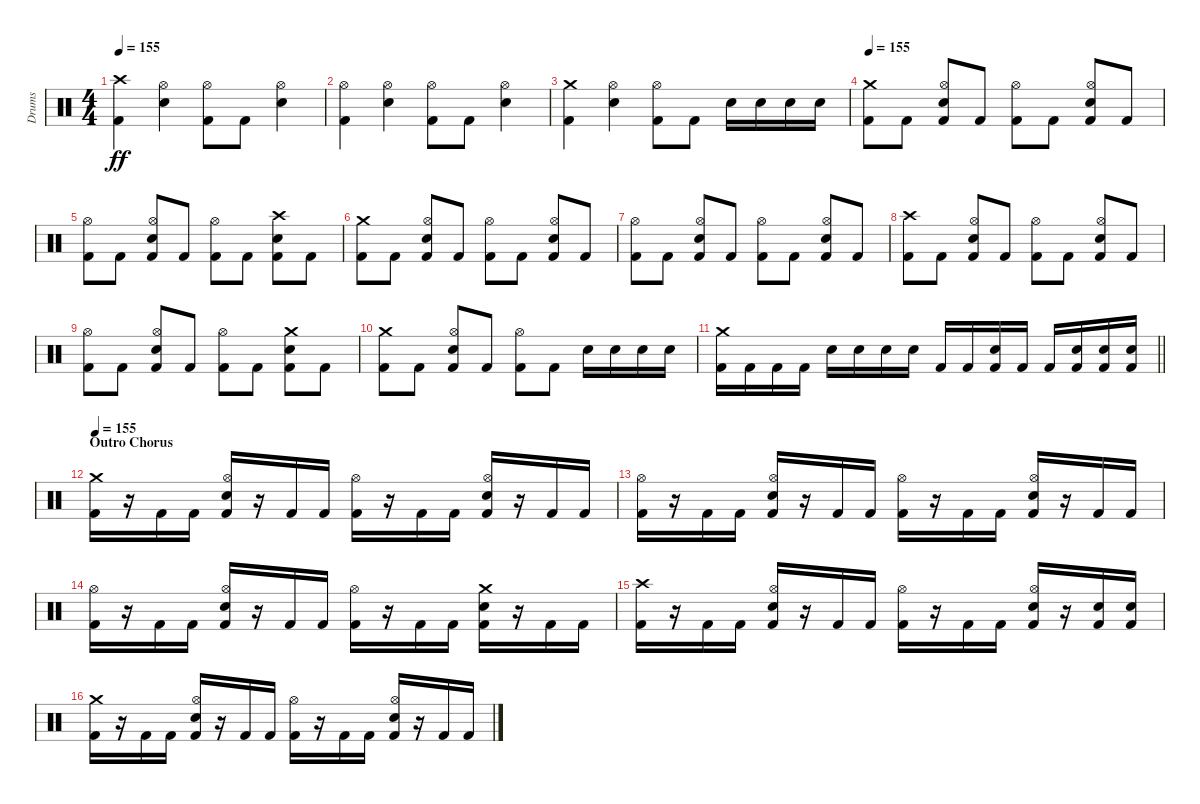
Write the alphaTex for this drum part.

\track ("Drums" "Drums") {solo instrument percussion}
\staff {score}
\articulation defaults
\ts (4 4)
\tempo 155
\clef neutral
\ks c
("Crash high (hit)" "Kick (hit) 2").4{dy ff} ("Hi-Hat (open)" "Electric Snare (hit)").4 ("Hi-Hat (open)" "Kick (hit) 2").8 "Kick (hit) 2".8 ("Hi-Hat (open)" "Electric Snare (hit)").4 |
("Hi-Hat (open)" "Kick (hit) 2").4 ("Hi-Hat (open)" "Electric Snare (hit)").4 ("Hi-Hat (open)" "Kick (hit) 2").8 "Kick (hit) 2".8 ("Hi-Hat (open)" "Electric Snare (hit)").4 |
("Crash medium (hit)" "Kick (hit) 2").4 ("Hi-Hat (open)" "Electric Snare (hit)").4 ("Hi-Hat (open)" "Kick (hit) 2").8 "Kick (hit) 2".8 "Electric Snare (hit)".16 "Electric Snare (hit)".16 "Electric Snare (hit)".16 "Electric Snare (hit)".16 |
\tempo 155
("Crash medium (hit)" "Kick (hit) 2").8 "Kick (hit) 2".8 ("Hi-Hat (open)" "Electric Snare (hit)" "Kick (hit) 2").8 "Kick (hit) 2".8 ("Hi-Hat (open)" "Kick (hit) 2").8 "Kick (hit) 2".8 ("Electric Snare (hit)" "Hi-Hat (open)" "Kick (hit) 2").8 "Kick (hit) 2".8 |
("Hi-Hat (open)" "Kick (hit) 2").8 "Kick (hit) 2".8 ("Hi-Hat (open)" "Electric Snare (hit)" "Kick (hit) 2").8 "Kick (hit) 2".8 ("Hi-Hat (open)" "Kick (hit) 2").8 "Kick (hit) 2".8 ("Electric Snare (hit)" "Crash high (hit)" "Kick (hit) 2").8 "Kick (hit) 2".8 |
("Crash medium (hit)" "Kick (hit) 2").8 "Kick (hit) 2".8 ("Hi-Hat (open)" "Electric Snare (hit)" "Kick (hit) 2").8 "Kick (hit) 2".8 ("Hi-Hat (open)" "Kick (hit) 2").8 "Kick (hit) 2".8 ("Electric Snare (hit)" "Hi-Hat (open)" "Kick (hit) 2").8 "Kick (hit) 2".8 |
("Hi-Hat (open)" "Kick (hit) 2").8 "Kick (hit) 2".8 ("Hi-Hat (open)" "Electric Snare (hit)" "Kick (hit) 2").8 "Kick (hit) 2".8 ("Hi-Hat (open)" "Kick (hit) 2").8 "Kick (hit) 2".8 ("Electric Snare (hit)" "Hi-Hat (open)" "Kick (hit) 2").8 "Kick (hit) 2".8 |
("Crash high (hit)" "Kick (hit) 2").8 "Kick (hit) 2".8 ("Hi-Hat (open)" "Electric Snare (hit)" "Kick (hit) 2").8 "Kick (hit) 2".8 ("Hi-Hat (open)" "Kick (hit) 2").8 "Kick (hit) 2".8 ("Electric Snare (hit)" "Hi-Hat (open)" "Kick (hit) 2").8 "Kick (hit) 2".8 |
("Hi-Hat (open)" "Kick (hit) 2").8 "Kick (hit) 2".8 ("Hi-Hat (open)" "Electric Snare (hit)" "Kick (hit) 2").8 "Kick (hit) 2".8 ("Hi-Hat (open)" "Kick (hit) 2").8 "Kick (hit) 2".8 ("Electric Snare (hit)" "Crash medium (hit)" "Kick (hit) 2").8 "Kick (hit) 2".8 |
("Crash medium (hit)" "Kick (hit) 2").8 "Kick (hit) 2".8 ("Hi-Hat (open)" "Electric Snare (hit)" "Kick (hit) 2").8 "Kick (hit) 2".8 ("Hi-Hat (open)" "Kick (hit) 2").8 "Kick (hit) 2".8 "Electric Snare (hit)".16 "Electric Snare (hit)".16 "Electric Snare (hit)".16 "Electric Snare (hit)".16 |
\barLineRight lightlight
("Crash medium (hit)" "Kick (hit) 2").16 "Kick (hit) 2".16 "Kick (hit) 2".16 "Kick (hit) 2".16 "Electric Snare (hit)".16 "Electric Snare (hit)".16 "Electric Snare (hit)".16 "Electric Snare (hit)".16 "Kick (hit) 2".16 "Kick (hit) 2".16 ("Electric Snare (hit)" "Kick (hit) 2").16 "Kick (hit) 2".16 "Kick (hit) 2".16 ("Electric Snare (hit)" "Kick (hit) 2").16 ("Electric Snare (hit)" "Kick (hit) 2").16 ("Electric Snare (hit)" "Kick (hit) 2").16 |
\section ("" "Outro Chorus")
\tempo 155
("Crash medium (hit)" "Kick (hit) 2").16 r.16 "Kick (hit) 2".16 "Kick (hit) 2".16 ("Hi-Hat (open)" "Electric Snare (hit)" "Kick (hit) 2").16 r.16 "Kick (hit) 2".16 "Kick (hit) 2".16 ("Hi-Hat (open)" "Kick (hit) 2").16 r.16 "Kick (hit) 2".16 "Kick (hit) 2".16 ("Electric Snare (hit)" "Hi-Hat (open)" "Kick (hit) 2").16 r.16 "Kick (hit) 2".16 "Kick (hit) 2".16 |
("Hi-Hat (open)" "Kick (hit) 2").16 r.16 "Kick (hit) 2".16 "Kick (hit) 2".16 ("Hi-Hat (open)" "Electric Snare (hit)" "Kick (hit) 2").16 r.16 "Kick (hit) 2".16 "Kick (hit) 2".16 ("Hi-Hat (open)" "Kick (hit) 2").16 r.16 "Kick (hit) 2".16 "Kick (hit) 2".16 ("Electric Snare (hit)" "Hi-Hat (open)" "Kick (hit) 2").16 r.16 "Kick (hit) 2".16 "Kick (hit) 2".16 |
("Hi-Hat (open)" "Kick (hit) 2").16 r.16 "Kick (hit) 2".16 "Kick (hit) 2".16 ("Hi-Hat (open)" "Electric Snare (hit)" "Kick (hit) 2").16 r.16 "Kick (hit) 2".16 "Kick (hit) 2".16 ("Hi-Hat (open)" "Kick (hit) 2").16 r.16 "Kick (hit) 2".16 "Kick (hit) 2".16 ("Electric Snare (hit)" "Crash medium (hit)" "Kick (hit) 2").16 r.16 "Kick (hit) 2".16 "Kick (hit) 2".16 |
("Crash high (hit)" "Kick (hit) 2").16 r.16 "Kick (hit) 2".16 "Kick (hit) 2".16 ("Hi-Hat (open)" "Electric Snare (hit)" "Kick (hit) 2").16 r.16 "Kick (hit) 2".16 "Kick (hit) 2".16 ("Hi-Hat (open)" "Kick (hit) 2").16 r.16 "Kick (hit) 2".16 "Kick (hit) 2".16 ("Electric Snare (hit)" "Hi-Hat (open)" "Kick (hit) 2").16 r.16 ("Electric Snare (hit)" "Kick (hit) 2").16 ("Electric Snare (hit)" "Kick (hit) 2").16 |
("Crash medium (hit)" "Kick (hit) 2").16 r.16 "Kick (hit) 2".16 "Kick (hit) 2".16 ("Hi-Hat (open)" "Electric Snare (hit)" "Kick (hit) 2").16 r.16 "Kick (hit) 2".16 "Kick (hit) 2".16 ("Hi-Hat (open)" "Kick (hit) 2").16 r.16 "Kick (hit) 2".16 "Kick (hit) 2".16 ("Electric Snare (hit)" "Hi-Hat (open)" "Kick (hit) 2").16 r.16 "Kick (hit) 2".16 "Kick (hit) 2".16
